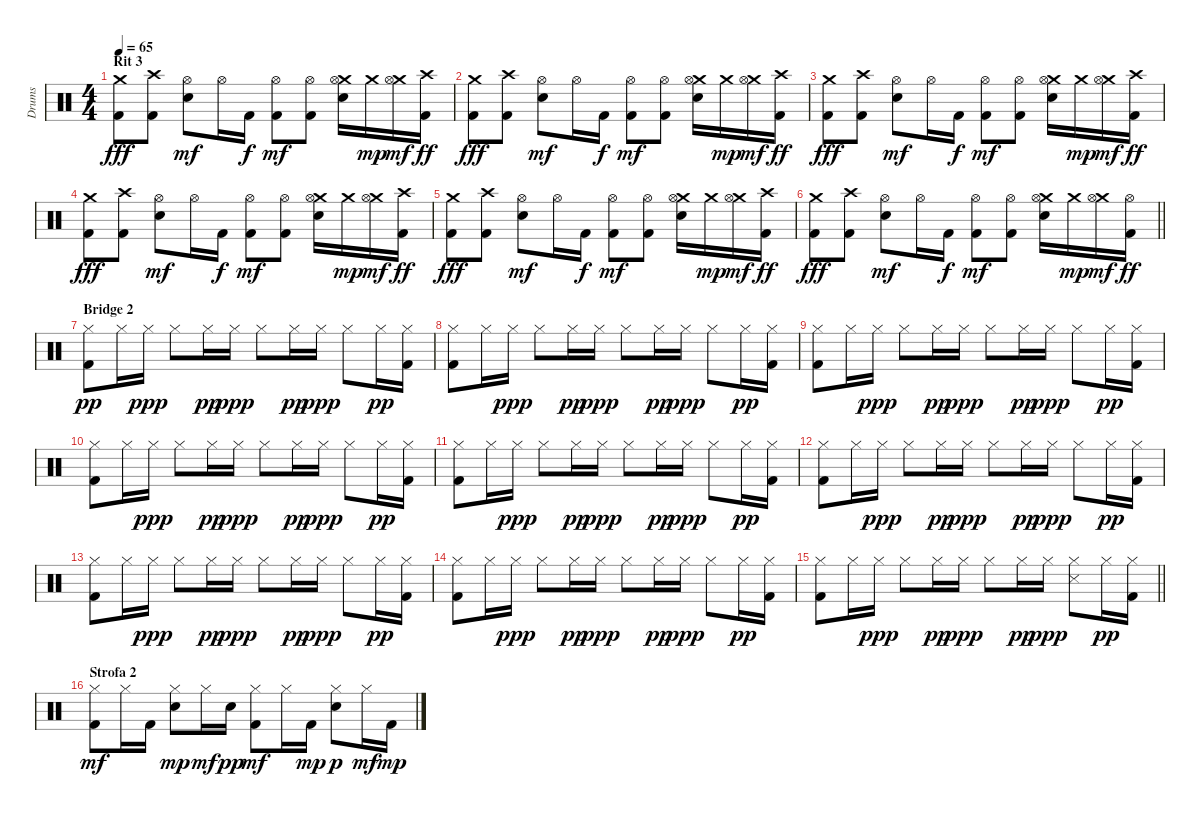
\track ("Drums" "Drums") {instrument percussion}
\staff {score}
\articulation defaults
\ts (4 4)
\section ("" "Rit 3")
\tempo 65
\clef neutral
\ks c
("Crash medium (hit)" "Kick (hit) 2").8{dy fff} ("Crash high (hit)" "Kick (hit) 2").8 ("Hi-Hat (open)" "Electric Snare (hit)").8{dy mf} "Hi-Hat (open)".16 "Kick (hit) 2".16{dy f} ("Hi-Hat (open)" "Kick (hit) 2").8{dy mf} ("Hi-Hat (open)" "Kick (hit) 2").8 ("Crash medium (hit)" "Hi-Hat (open)" "Electric Snare (hit)").16 "Crash medium (hit)".16{dy mp} ("Crash medium (hit)" "Hi-Hat (open)").16{dy mf} ("Crash high (hit)" "Kick (hit) 2").16{dy ff} |
("Crash medium (hit)" "Kick (hit) 2").8{dy fff} ("Crash high (hit)" "Kick (hit) 2").8 ("Hi-Hat (open)" "Electric Snare (hit)").8{dy mf} "Hi-Hat (open)".16 "Kick (hit) 2".16{dy f} ("Hi-Hat (open)" "Kick (hit) 2").8{dy mf} ("Hi-Hat (open)" "Kick (hit) 2").8 ("Crash medium (hit)" "Hi-Hat (open)" "Electric Snare (hit)").16 "Crash medium (hit)".16{dy mp} ("Crash medium (hit)" "Hi-Hat (open)").16{dy mf} ("Crash high (hit)" "Kick (hit) 2").16{dy ff} |
("Crash medium (hit)" "Kick (hit) 2").8{dy fff} ("Crash high (hit)" "Kick (hit) 2").8 ("Hi-Hat (open)" "Electric Snare (hit)").8{dy mf} "Hi-Hat (open)".16 "Kick (hit) 2".16{dy f} ("Hi-Hat (open)" "Kick (hit) 2").8{dy mf} ("Hi-Hat (open)" "Kick (hit) 2").8 ("Crash medium (hit)" "Hi-Hat (open)" "Electric Snare (hit)").16 "Crash medium (hit)".16{dy mp} ("Crash medium (hit)" "Hi-Hat (open)").16{dy mf} ("Crash high (hit)" "Kick (hit) 2").16{dy ff} |
("Crash medium (hit)" "Kick (hit) 2").8{dy fff} ("Crash high (hit)" "Kick (hit) 2").8 ("Hi-Hat (open)" "Electric Snare (hit)").8{dy mf} "Hi-Hat (open)".16 "Kick (hit) 2".16{dy f} ("Hi-Hat (open)" "Kick (hit) 2").8{dy mf} ("Hi-Hat (open)" "Kick (hit) 2").8 ("Crash medium (hit)" "Hi-Hat (open)" "Electric Snare (hit)").16 "Crash medium (hit)".16{dy mp} ("Crash medium (hit)" "Hi-Hat (open)").16{dy mf} ("Crash high (hit)" "Kick (hit) 2").16{dy ff} |
("Crash medium (hit)" "Kick (hit) 2").8{dy fff} ("Crash high (hit)" "Kick (hit) 2").8 ("Hi-Hat (open)" "Electric Snare (hit)").8{dy mf} "Hi-Hat (open)".16 "Kick (hit) 2".16{dy f} ("Hi-Hat (open)" "Kick (hit) 2").8{dy mf} ("Hi-Hat (open)" "Kick (hit) 2").8 ("Crash medium (hit)" "Hi-Hat (open)" "Electric Snare (hit)").16 "Crash medium (hit)".16{dy mp} ("Crash medium (hit)" "Hi-Hat (open)").16{dy mf} ("Crash high (hit)" "Kick (hit) 2").16{dy ff} |
\barLineRight lightlight
("Crash medium (hit)" "Kick (hit) 2").8{dy fff} ("Crash high (hit)" "Kick (hit) 2").8 ("Hi-Hat (open)" "Electric Snare (hit)").8{dy mf} "Hi-Hat (open)".16 "Kick (hit) 2".16{dy f} ("Hi-Hat (open)" "Kick (hit) 2").8{dy mf} ("Hi-Hat (open)" "Kick (hit) 2").8 ("Crash medium (hit)" "Hi-Hat (open)" "Electric Snare (hit)").16 "Crash medium (hit)".16{dy mp} ("Crash medium (hit)" "Hi-Hat (open)").16{dy mf} ("Hi-Hat (open)" "Kick (hit) 2").16{dy ff} |
\section ("" "Bridge 2")
("Hi-Hat (closed)" "Kick (hit) 2").8{dy pp} "Hi-Hat (closed)".16 "Hi-Hat (closed)".16{dy ppp} "Hi-Hat (closed)".8 "Hi-Hat (closed)".16{dy pp} "Hi-Hat (closed)".16{dy ppp} "Hi-Hat (closed)".8 "Hi-Hat (closed)".16{dy pp} "Hi-Hat (closed)".16{dy ppp} "Hi-Hat (closed)".8 "Hi-Hat (closed)".16{dy pp} ("Hi-Hat (closed)" "Kick (hit) 2").16 |
("Hi-Hat (closed)" "Kick (hit) 2").8 "Hi-Hat (closed)".16 "Hi-Hat (closed)".16{dy ppp} "Hi-Hat (closed)".8 "Hi-Hat (closed)".16{dy pp} "Hi-Hat (closed)".16{dy ppp} "Hi-Hat (closed)".8 "Hi-Hat (closed)".16{dy pp} "Hi-Hat (closed)".16{dy ppp} "Hi-Hat (closed)".8 "Hi-Hat (closed)".16{dy pp} ("Hi-Hat (closed)" "Kick (hit) 2").16 |
("Hi-Hat (closed)" "Kick (hit) 2").8 "Hi-Hat (closed)".16 "Hi-Hat (closed)".16{dy ppp} "Hi-Hat (closed)".8 "Hi-Hat (closed)".16{dy pp} "Hi-Hat (closed)".16{dy ppp} "Hi-Hat (closed)".8 "Hi-Hat (closed)".16{dy pp} "Hi-Hat (closed)".16{dy ppp} "Hi-Hat (closed)".8 "Hi-Hat (closed)".16{dy pp} ("Hi-Hat (closed)" "Kick (hit) 2").16 |
("Hi-Hat (closed)" "Kick (hit) 2").8 "Hi-Hat (closed)".16 "Hi-Hat (closed)".16{dy ppp} "Hi-Hat (closed)".8 "Hi-Hat (closed)".16{dy pp} "Hi-Hat (closed)".16{dy ppp} "Hi-Hat (closed)".8 "Hi-Hat (closed)".16{dy pp} "Hi-Hat (closed)".16{dy ppp} "Hi-Hat (closed)".8 "Hi-Hat (closed)".16{dy pp} ("Hi-Hat (closed)" "Kick (hit) 2").16 |
("Hi-Hat (closed)" "Kick (hit) 2").8 "Hi-Hat (closed)".16 "Hi-Hat (closed)".16{dy ppp} "Hi-Hat (closed)".8 "Hi-Hat (closed)".16{dy pp} "Hi-Hat (closed)".16{dy ppp} "Hi-Hat (closed)".8 "Hi-Hat (closed)".16{dy pp} "Hi-Hat (closed)".16{dy ppp} "Hi-Hat (closed)".8 "Hi-Hat (closed)".16{dy pp} ("Hi-Hat (closed)" "Kick (hit) 2").16 |
("Hi-Hat (closed)" "Kick (hit) 2").8 "Hi-Hat (closed)".16 "Hi-Hat (closed)".16{dy ppp} "Hi-Hat (closed)".8 "Hi-Hat (closed)".16{dy pp} "Hi-Hat (closed)".16{dy ppp} "Hi-Hat (closed)".8 "Hi-Hat (closed)".16{dy pp} "Hi-Hat (closed)".16{dy ppp} "Hi-Hat (closed)".8 "Hi-Hat (closed)".16{dy pp} ("Hi-Hat (closed)" "Kick (hit) 2").16 |
("Hi-Hat (closed)" "Kick (hit) 2").8 "Hi-Hat (closed)".16 "Hi-Hat (closed)".16{dy ppp} "Hi-Hat (closed)".8 "Hi-Hat (closed)".16{dy pp} "Hi-Hat (closed)".16{dy ppp} "Hi-Hat (closed)".8 "Hi-Hat (closed)".16{dy pp} "Hi-Hat (closed)".16{dy ppp} "Hi-Hat (closed)".8 "Hi-Hat (closed)".16{dy pp} ("Hi-Hat (closed)" "Kick (hit) 2").16 |
("Hi-Hat (closed)" "Kick (hit) 2").8 "Hi-Hat (closed)".16 "Hi-Hat (closed)".16{dy ppp} "Hi-Hat (closed)".8 "Hi-Hat (closed)".16{dy pp} "Hi-Hat (closed)".16{dy ppp} "Hi-Hat (closed)".8 "Hi-Hat (closed)".16{dy pp} "Hi-Hat (closed)".16{dy ppp} "Hi-Hat (closed)".8 "Hi-Hat (closed)".16{dy pp} ("Hi-Hat (closed)" "Kick (hit) 2").16 |
\barLineRight lightlight
("Hi-Hat (closed)" "Kick (hit) 2").8 "Hi-Hat (closed)".16 "Hi-Hat (closed)".16{dy ppp} "Hi-Hat (closed)".8 "Hi-Hat (closed)".16{dy pp} "Hi-Hat (closed)".16{dy ppp} "Hi-Hat (closed)".8 "Hi-Hat (closed)".16{dy pp} "Hi-Hat (closed)".16{dy ppp} ("Hi-Hat (closed)" "Snare (side stick) 3").8 "Hi-Hat (closed)".16{dy pp} ("Hi-Hat (closed)" "Kick (hit) 2").16 |
\section ("" "Strofa 2")
("Hi-Hat (closed)" "Kick (hit) 2").8{dy mf} "Hi-Hat (closed)".16 "Kick (hit) 2".16 ("Hi-Hat (closed)" "Electric Snare (hit)").8{dy mp} "Hi-Hat (closed)".16{dy mf} "Electric Snare (hit)".16{dy pp} ("Hi-Hat (closed)" "Kick (hit) 2").8{dy mf} "Hi-Hat (closed)".16 "Kick (hit) 2".16{dy mp} ("Hi-Hat (closed)" "Electric Snare (hit)").8{dy p} "Hi-Hat (closed)".16{dy mf} "Kick (hit) 2".16{dy mp}
